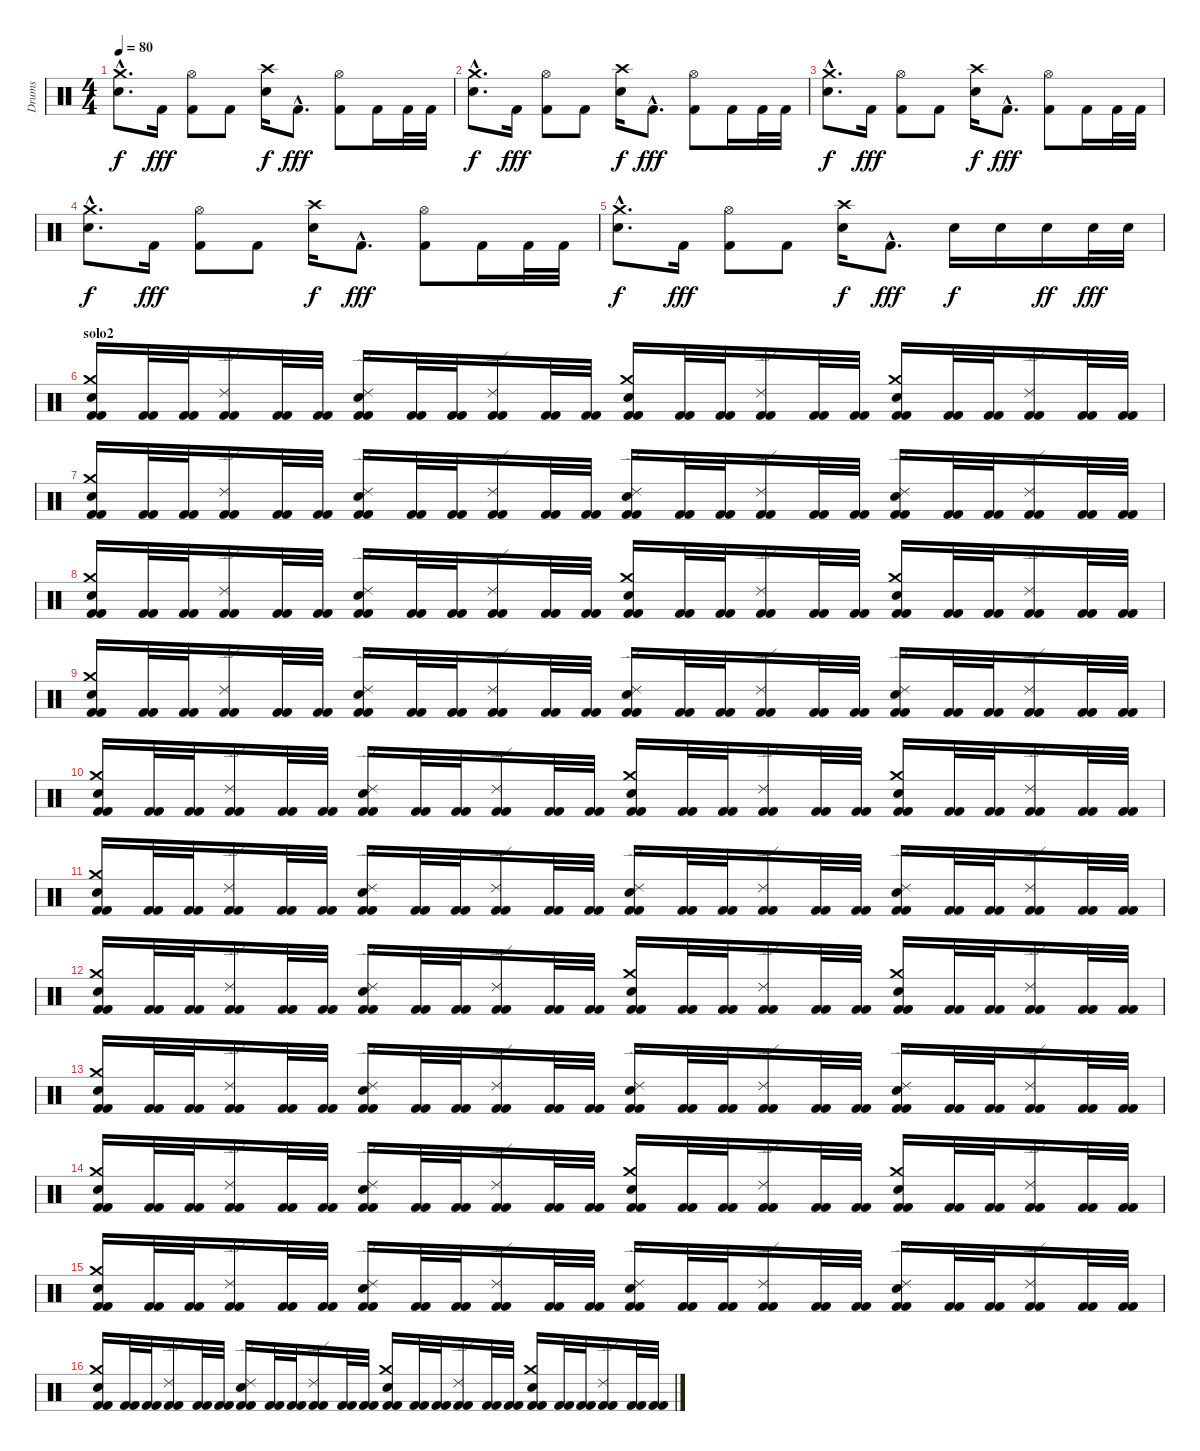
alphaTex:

\track ("Drums" "Drums") {instrument percussion}
\staff {score}
\articulation defaults
\ts (4 4)
\tempo 80
\clef neutral
\ks c
("Electric Snare (hit)"{hac} "Crash medium (hit)"{hac}).8{d dy f} "Kick (hit) 2".16{dy fff} ("Hi-Hat (open)" "Kick (hit) 2").8 "Kick (hit) 2".8 ("Crash high (hit)" "Electric Snare (hit)").16{dy f} "Kick (hit) 2"{hac}.8{d dy fff} ("Hi-Hat (open)" "Kick (hit) 2").8 "Kick (hit) 2".16 "Kick (hit) 2".32 "Kick (hit) 2".32 |
("Electric Snare (hit)"{hac} "Crash medium (hit)"{hac}).8{d dy f} "Kick (hit) 2".16{dy fff} ("Hi-Hat (open)" "Kick (hit) 2").8 "Kick (hit) 2".8 ("Crash high (hit)" "Electric Snare (hit)").16{dy f} "Kick (hit) 2"{hac}.8{d dy fff} ("Hi-Hat (open)" "Kick (hit) 2").8 "Kick (hit) 2".16 "Kick (hit) 2".32 "Kick (hit) 2".32 |
("Electric Snare (hit)"{hac} "Crash medium (hit)"{hac}).8{d dy f} "Kick (hit) 2".16{dy fff} ("Hi-Hat (open)" "Kick (hit) 2").8 "Kick (hit) 2".8 ("Crash high (hit)" "Electric Snare (hit)").16{dy f} "Kick (hit) 2"{hac}.8{d dy fff} ("Hi-Hat (open)" "Kick (hit) 2").8 "Kick (hit) 2".16 "Kick (hit) 2".32 "Kick (hit) 2".32 |
("Electric Snare (hit)"{hac} "Crash medium (hit)"{hac}).8{d dy f} "Kick (hit) 2".16{dy fff} ("Hi-Hat (open)" "Kick (hit) 2").8 "Kick (hit) 2".8 ("Crash high (hit)" "Electric Snare (hit)").16{dy f} "Kick (hit) 2"{hac}.8{d dy fff} ("Hi-Hat (open)" "Kick (hit) 2").8 "Kick (hit) 2".16 "Kick (hit) 2".32 "Kick (hit) 2".32 |
("Electric Snare (hit)"{hac} "Crash medium (hit)"{hac}).8{d dy f} "Kick (hit) 2".16{dy fff} ("Hi-Hat (open)" "Kick (hit) 2").8 "Kick (hit) 2".8 ("Crash high (hit)" "Electric Snare (hit)").16{dy f} "Kick (hit) 2"{hac}.8{d dy fff} "Electric Snare (hit)".16{dy f} "Electric Snare (hit)".16 "Electric Snare (hit)".16{dy ff} "Electric Snare (hit)".32{dy fff} "Electric Snare (hit)".32 |
\section ("" "solo2")
("Kick (hit) 2" "Kick (hit) 2" "Crash medium (hit)" "Electric Snare (hit)").16 ("Kick (hit) 2" "Kick (hit) 2").32 ("Kick (hit) 2" "Kick (hit) 2").32 ("Kick (hit) 2" "Kick (hit) 2" "Ride (edge) 2").16 ("Kick (hit) 2" "Kick (hit) 2").32 ("Kick (hit) 2" "Kick (hit) 2").32 ("Kick (hit) 2" "Kick (hit) 2" "Ride (edge) 2" "Snare (hit) 2").16 ("Kick (hit) 2" "Kick (hit) 2").32 ("Kick (hit) 2" "Kick (hit) 2").32 ("Kick (hit) 2" "Kick (hit) 2" "Ride (edge) 2").16 ("Kick (hit) 2" "Kick (hit) 2").32 ("Kick (hit) 2" "Kick (hit) 2").32 ("Kick (hit) 2" "Kick (hit) 2" "Crash medium (hit)" "Electric Snare (hit)").16 ("Kick (hit) 2" "Kick (hit) 2").32 ("Kick (hit) 2" "Kick (hit) 2").32 ("Kick (hit) 2" "Kick (hit) 2" "Ride (edge) 2").16 ("Kick (hit) 2" "Kick (hit) 2").32 ("Kick (hit) 2" "Kick (hit) 2").32 ("Kick (hit) 2" "Kick (hit) 2" "Crash medium (hit)" "Electric Snare (hit)").16 ("Kick (hit) 2" "Kick (hit) 2").32 ("Kick (hit) 2" "Kick (hit) 2").32 ("Kick (hit) 2" "Kick (hit) 2" "Ride (edge) 2").16 ("Kick (hit) 2" "Kick (hit) 2").32 ("Kick (hit) 2" "Kick (hit) 2").32 |
("Kick (hit) 2" "Kick (hit) 2" "Crash medium (hit)" "Electric Snare (hit)").16 ("Kick (hit) 2" "Kick (hit) 2").32 ("Kick (hit) 2" "Kick (hit) 2").32 ("Kick (hit) 2" "Kick (hit) 2" "Ride (edge) 2").16 ("Kick (hit) 2" "Kick (hit) 2").32 ("Kick (hit) 2" "Kick (hit) 2").32 ("Kick (hit) 2" "Kick (hit) 2" "Ride (edge) 2" "Snare (hit) 2").16 ("Kick (hit) 2" "Kick (hit) 2").32 ("Kick (hit) 2" "Kick (hit) 2").32 ("Kick (hit) 2" "Kick (hit) 2" "Ride (edge) 2").16 ("Kick (hit) 2" "Kick (hit) 2").32 ("Kick (hit) 2" "Kick (hit) 2").32 ("Kick (hit) 2" "Kick (hit) 2" "Ride (edge) 2" "Snare (hit) 2").16 ("Kick (hit) 2" "Kick (hit) 2").32 ("Kick (hit) 2" "Kick (hit) 2").32 ("Kick (hit) 2" "Kick (hit) 2" "Ride (edge) 2").16 ("Kick (hit) 2" "Kick (hit) 2").32 ("Kick (hit) 2" "Kick (hit) 2").32 ("Kick (hit) 2" "Kick (hit) 2" "Ride (edge) 2" "Snare (hit) 2").16 ("Kick (hit) 2" "Kick (hit) 2").32 ("Kick (hit) 2" "Kick (hit) 2").32 ("Kick (hit) 2" "Kick (hit) 2" "Ride (edge) 2").16 ("Kick (hit) 2" "Kick (hit) 2").32 ("Kick (hit) 2" "Kick (hit) 2").32 |
("Kick (hit) 2" "Kick (hit) 2" "Crash medium (hit)" "Electric Snare (hit)").16 ("Kick (hit) 2" "Kick (hit) 2").32 ("Kick (hit) 2" "Kick (hit) 2").32 ("Kick (hit) 2" "Kick (hit) 2" "Ride (edge) 2").16 ("Kick (hit) 2" "Kick (hit) 2").32 ("Kick (hit) 2" "Kick (hit) 2").32 ("Kick (hit) 2" "Kick (hit) 2" "Ride (edge) 2" "Snare (hit) 2").16 ("Kick (hit) 2" "Kick (hit) 2").32 ("Kick (hit) 2" "Kick (hit) 2").32 ("Kick (hit) 2" "Kick (hit) 2" "Ride (edge) 2").16 ("Kick (hit) 2" "Kick (hit) 2").32 ("Kick (hit) 2" "Kick (hit) 2").32 ("Kick (hit) 2" "Kick (hit) 2" "Crash medium (hit)" "Electric Snare (hit)").16 ("Kick (hit) 2" "Kick (hit) 2").32 ("Kick (hit) 2" "Kick (hit) 2").32 ("Kick (hit) 2" "Kick (hit) 2" "Ride (edge) 2").16 ("Kick (hit) 2" "Kick (hit) 2").32 ("Kick (hit) 2" "Kick (hit) 2").32 ("Kick (hit) 2" "Kick (hit) 2" "Crash medium (hit)" "Electric Snare (hit)").16 ("Kick (hit) 2" "Kick (hit) 2").32 ("Kick (hit) 2" "Kick (hit) 2").32 ("Kick (hit) 2" "Kick (hit) 2" "Ride (edge) 2").16 ("Kick (hit) 2" "Kick (hit) 2").32 ("Kick (hit) 2" "Kick (hit) 2").32 |
("Kick (hit) 2" "Kick (hit) 2" "Crash medium (hit)" "Electric Snare (hit)").16 ("Kick (hit) 2" "Kick (hit) 2").32 ("Kick (hit) 2" "Kick (hit) 2").32 ("Kick (hit) 2" "Kick (hit) 2" "Ride (edge) 2").16 ("Kick (hit) 2" "Kick (hit) 2").32 ("Kick (hit) 2" "Kick (hit) 2").32 ("Kick (hit) 2" "Kick (hit) 2" "Ride (edge) 2" "Snare (hit) 2").16 ("Kick (hit) 2" "Kick (hit) 2").32 ("Kick (hit) 2" "Kick (hit) 2").32 ("Kick (hit) 2" "Kick (hit) 2" "Ride (edge) 2").16 ("Kick (hit) 2" "Kick (hit) 2").32 ("Kick (hit) 2" "Kick (hit) 2").32 ("Kick (hit) 2" "Kick (hit) 2" "Ride (edge) 2" "Snare (hit) 2").16 ("Kick (hit) 2" "Kick (hit) 2").32 ("Kick (hit) 2" "Kick (hit) 2").32 ("Kick (hit) 2" "Kick (hit) 2" "Ride (edge) 2").16 ("Kick (hit) 2" "Kick (hit) 2").32 ("Kick (hit) 2" "Kick (hit) 2").32 ("Kick (hit) 2" "Kick (hit) 2" "Ride (edge) 2" "Snare (hit) 2").16 ("Kick (hit) 2" "Kick (hit) 2").32 ("Kick (hit) 2" "Kick (hit) 2").32 ("Kick (hit) 2" "Kick (hit) 2" "Ride (edge) 2").16 ("Kick (hit) 2" "Kick (hit) 2").32 ("Kick (hit) 2" "Kick (hit) 2").32 |
("Kick (hit) 2" "Kick (hit) 2" "Crash medium (hit)" "Electric Snare (hit)").16 ("Kick (hit) 2" "Kick (hit) 2").32 ("Kick (hit) 2" "Kick (hit) 2").32 ("Kick (hit) 2" "Kick (hit) 2" "Ride (edge) 2").16 ("Kick (hit) 2" "Kick (hit) 2").32 ("Kick (hit) 2" "Kick (hit) 2").32 ("Kick (hit) 2" "Kick (hit) 2" "Ride (edge) 2" "Snare (hit) 2").16 ("Kick (hit) 2" "Kick (hit) 2").32 ("Kick (hit) 2" "Kick (hit) 2").32 ("Kick (hit) 2" "Kick (hit) 2" "Ride (edge) 2").16 ("Kick (hit) 2" "Kick (hit) 2").32 ("Kick (hit) 2" "Kick (hit) 2").32 ("Kick (hit) 2" "Kick (hit) 2" "Crash medium (hit)" "Electric Snare (hit)").16 ("Kick (hit) 2" "Kick (hit) 2").32 ("Kick (hit) 2" "Kick (hit) 2").32 ("Kick (hit) 2" "Kick (hit) 2" "Ride (edge) 2").16 ("Kick (hit) 2" "Kick (hit) 2").32 ("Kick (hit) 2" "Kick (hit) 2").32 ("Kick (hit) 2" "Kick (hit) 2" "Crash medium (hit)" "Electric Snare (hit)").16 ("Kick (hit) 2" "Kick (hit) 2").32 ("Kick (hit) 2" "Kick (hit) 2").32 ("Kick (hit) 2" "Kick (hit) 2" "Ride (edge) 2").16 ("Kick (hit) 2" "Kick (hit) 2").32 ("Kick (hit) 2" "Kick (hit) 2").32 |
("Kick (hit) 2" "Kick (hit) 2" "Crash medium (hit)" "Electric Snare (hit)").16 ("Kick (hit) 2" "Kick (hit) 2").32 ("Kick (hit) 2" "Kick (hit) 2").32 ("Kick (hit) 2" "Kick (hit) 2" "Ride (edge) 2").16 ("Kick (hit) 2" "Kick (hit) 2").32 ("Kick (hit) 2" "Kick (hit) 2").32 ("Kick (hit) 2" "Kick (hit) 2" "Ride (edge) 2" "Snare (hit) 2").16 ("Kick (hit) 2" "Kick (hit) 2").32 ("Kick (hit) 2" "Kick (hit) 2").32 ("Kick (hit) 2" "Kick (hit) 2" "Ride (edge) 2").16 ("Kick (hit) 2" "Kick (hit) 2").32 ("Kick (hit) 2" "Kick (hit) 2").32 ("Kick (hit) 2" "Kick (hit) 2" "Ride (edge) 2" "Snare (hit) 2").16 ("Kick (hit) 2" "Kick (hit) 2").32 ("Kick (hit) 2" "Kick (hit) 2").32 ("Kick (hit) 2" "Kick (hit) 2" "Ride (edge) 2").16 ("Kick (hit) 2" "Kick (hit) 2").32 ("Kick (hit) 2" "Kick (hit) 2").32 ("Kick (hit) 2" "Kick (hit) 2" "Ride (edge) 2" "Snare (hit) 2").16 ("Kick (hit) 2" "Kick (hit) 2").32 ("Kick (hit) 2" "Kick (hit) 2").32 ("Kick (hit) 2" "Kick (hit) 2" "Ride (edge) 2").16 ("Kick (hit) 2" "Kick (hit) 2").32 ("Kick (hit) 2" "Kick (hit) 2").32 |
("Kick (hit) 2" "Kick (hit) 2" "Crash medium (hit)" "Electric Snare (hit)").16 ("Kick (hit) 2" "Kick (hit) 2").32 ("Kick (hit) 2" "Kick (hit) 2").32 ("Kick (hit) 2" "Kick (hit) 2" "Ride (edge) 2").16 ("Kick (hit) 2" "Kick (hit) 2").32 ("Kick (hit) 2" "Kick (hit) 2").32 ("Kick (hit) 2" "Kick (hit) 2" "Ride (edge) 2" "Snare (hit) 2").16 ("Kick (hit) 2" "Kick (hit) 2").32 ("Kick (hit) 2" "Kick (hit) 2").32 ("Kick (hit) 2" "Kick (hit) 2" "Ride (edge) 2").16 ("Kick (hit) 2" "Kick (hit) 2").32 ("Kick (hit) 2" "Kick (hit) 2").32 ("Kick (hit) 2" "Kick (hit) 2" "Crash medium (hit)" "Electric Snare (hit)").16 ("Kick (hit) 2" "Kick (hit) 2").32 ("Kick (hit) 2" "Kick (hit) 2").32 ("Kick (hit) 2" "Kick (hit) 2" "Ride (edge) 2").16 ("Kick (hit) 2" "Kick (hit) 2").32 ("Kick (hit) 2" "Kick (hit) 2").32 ("Kick (hit) 2" "Kick (hit) 2" "Crash medium (hit)" "Electric Snare (hit)").16 ("Kick (hit) 2" "Kick (hit) 2").32 ("Kick (hit) 2" "Kick (hit) 2").32 ("Kick (hit) 2" "Kick (hit) 2" "Ride (edge) 2").16 ("Kick (hit) 2" "Kick (hit) 2").32 ("Kick (hit) 2" "Kick (hit) 2").32 |
("Kick (hit) 2" "Kick (hit) 2" "Crash medium (hit)" "Electric Snare (hit)").16 ("Kick (hit) 2" "Kick (hit) 2").32 ("Kick (hit) 2" "Kick (hit) 2").32 ("Kick (hit) 2" "Kick (hit) 2" "Ride (edge) 2").16 ("Kick (hit) 2" "Kick (hit) 2").32 ("Kick (hit) 2" "Kick (hit) 2").32 ("Kick (hit) 2" "Kick (hit) 2" "Ride (edge) 2" "Snare (hit) 2").16 ("Kick (hit) 2" "Kick (hit) 2").32 ("Kick (hit) 2" "Kick (hit) 2").32 ("Kick (hit) 2" "Kick (hit) 2" "Ride (edge) 2").16 ("Kick (hit) 2" "Kick (hit) 2").32 ("Kick (hit) 2" "Kick (hit) 2").32 ("Kick (hit) 2" "Kick (hit) 2" "Ride (edge) 2" "Snare (hit) 2").16 ("Kick (hit) 2" "Kick (hit) 2").32 ("Kick (hit) 2" "Kick (hit) 2").32 ("Kick (hit) 2" "Kick (hit) 2" "Ride (edge) 2").16 ("Kick (hit) 2" "Kick (hit) 2").32 ("Kick (hit) 2" "Kick (hit) 2").32 ("Kick (hit) 2" "Kick (hit) 2" "Ride (edge) 2" "Snare (hit) 2").16 ("Kick (hit) 2" "Kick (hit) 2").32 ("Kick (hit) 2" "Kick (hit) 2").32 ("Kick (hit) 2" "Kick (hit) 2" "Ride (edge) 2").16 ("Kick (hit) 2" "Kick (hit) 2").32 ("Kick (hit) 2" "Kick (hit) 2").32 |
("Kick (hit) 2" "Kick (hit) 2" "Crash medium (hit)" "Electric Snare (hit)").16 ("Kick (hit) 2" "Kick (hit) 2").32 ("Kick (hit) 2" "Kick (hit) 2").32 ("Kick (hit) 2" "Kick (hit) 2" "Ride (edge) 2").16 ("Kick (hit) 2" "Kick (hit) 2").32 ("Kick (hit) 2" "Kick (hit) 2").32 ("Kick (hit) 2" "Kick (hit) 2" "Ride (edge) 2" "Snare (hit) 2").16 ("Kick (hit) 2" "Kick (hit) 2").32 ("Kick (hit) 2" "Kick (hit) 2").32 ("Kick (hit) 2" "Kick (hit) 2" "Ride (edge) 2").16 ("Kick (hit) 2" "Kick (hit) 2").32 ("Kick (hit) 2" "Kick (hit) 2").32 ("Kick (hit) 2" "Kick (hit) 2" "Crash medium (hit)" "Electric Snare (hit)").16 ("Kick (hit) 2" "Kick (hit) 2").32 ("Kick (hit) 2" "Kick (hit) 2").32 ("Kick (hit) 2" "Kick (hit) 2" "Ride (edge) 2").16 ("Kick (hit) 2" "Kick (hit) 2").32 ("Kick (hit) 2" "Kick (hit) 2").32 ("Kick (hit) 2" "Kick (hit) 2" "Crash medium (hit)" "Electric Snare (hit)").16 ("Kick (hit) 2" "Kick (hit) 2").32 ("Kick (hit) 2" "Kick (hit) 2").32 ("Kick (hit) 2" "Kick (hit) 2" "Ride (edge) 2").16 ("Kick (hit) 2" "Kick (hit) 2").32 ("Kick (hit) 2" "Kick (hit) 2").32 |
("Kick (hit) 2" "Kick (hit) 2" "Crash medium (hit)" "Electric Snare (hit)").16 ("Kick (hit) 2" "Kick (hit) 2").32 ("Kick (hit) 2" "Kick (hit) 2").32 ("Kick (hit) 2" "Kick (hit) 2" "Ride (edge) 2").16 ("Kick (hit) 2" "Kick (hit) 2").32 ("Kick (hit) 2" "Kick (hit) 2").32 ("Kick (hit) 2" "Kick (hit) 2" "Ride (edge) 2" "Snare (hit) 2").16 ("Kick (hit) 2" "Kick (hit) 2").32 ("Kick (hit) 2" "Kick (hit) 2").32 ("Kick (hit) 2" "Kick (hit) 2" "Ride (edge) 2").16 ("Kick (hit) 2" "Kick (hit) 2").32 ("Kick (hit) 2" "Kick (hit) 2").32 ("Kick (hit) 2" "Kick (hit) 2" "Ride (edge) 2" "Snare (hit) 2").16 ("Kick (hit) 2" "Kick (hit) 2").32 ("Kick (hit) 2" "Kick (hit) 2").32 ("Kick (hit) 2" "Kick (hit) 2" "Ride (edge) 2").16 ("Kick (hit) 2" "Kick (hit) 2").32 ("Kick (hit) 2" "Kick (hit) 2").32 ("Kick (hit) 2" "Kick (hit) 2" "Ride (edge) 2" "Snare (hit) 2").16 ("Kick (hit) 2" "Kick (hit) 2").32 ("Kick (hit) 2" "Kick (hit) 2").32 ("Kick (hit) 2" "Kick (hit) 2" "Ride (edge) 2").16 ("Kick (hit) 2" "Kick (hit) 2").32 ("Kick (hit) 2" "Kick (hit) 2").32 |
("Kick (hit) 2" "Kick (hit) 2" "Crash medium (hit)" "Electric Snare (hit)").16 ("Kick (hit) 2" "Kick (hit) 2").32 ("Kick (hit) 2" "Kick (hit) 2").32 ("Kick (hit) 2" "Kick (hit) 2" "Ride (edge) 2").16 ("Kick (hit) 2" "Kick (hit) 2").32 ("Kick (hit) 2" "Kick (hit) 2").32 ("Kick (hit) 2" "Kick (hit) 2" "Ride (edge) 2" "Snare (hit) 2").16 ("Kick (hit) 2" "Kick (hit) 2").32 ("Kick (hit) 2" "Kick (hit) 2").32 ("Kick (hit) 2" "Kick (hit) 2" "Ride (edge) 2").16 ("Kick (hit) 2" "Kick (hit) 2").32 ("Kick (hit) 2" "Kick (hit) 2").32 ("Kick (hit) 2" "Kick (hit) 2" "Crash medium (hit)" "Electric Snare (hit)").16 ("Kick (hit) 2" "Kick (hit) 2").32 ("Kick (hit) 2" "Kick (hit) 2").32 ("Kick (hit) 2" "Kick (hit) 2" "Ride (edge) 2").16 ("Kick (hit) 2" "Kick (hit) 2").32 ("Kick (hit) 2" "Kick (hit) 2").32 ("Kick (hit) 2" "Kick (hit) 2" "Crash medium (hit)" "Electric Snare (hit)").16 ("Kick (hit) 2" "Kick (hit) 2").32 ("Kick (hit) 2" "Kick (hit) 2").32 ("Kick (hit) 2" "Kick (hit) 2" "Ride (edge) 2").16 ("Kick (hit) 2" "Kick (hit) 2").32 ("Kick (hit) 2" "Kick (hit) 2").32
